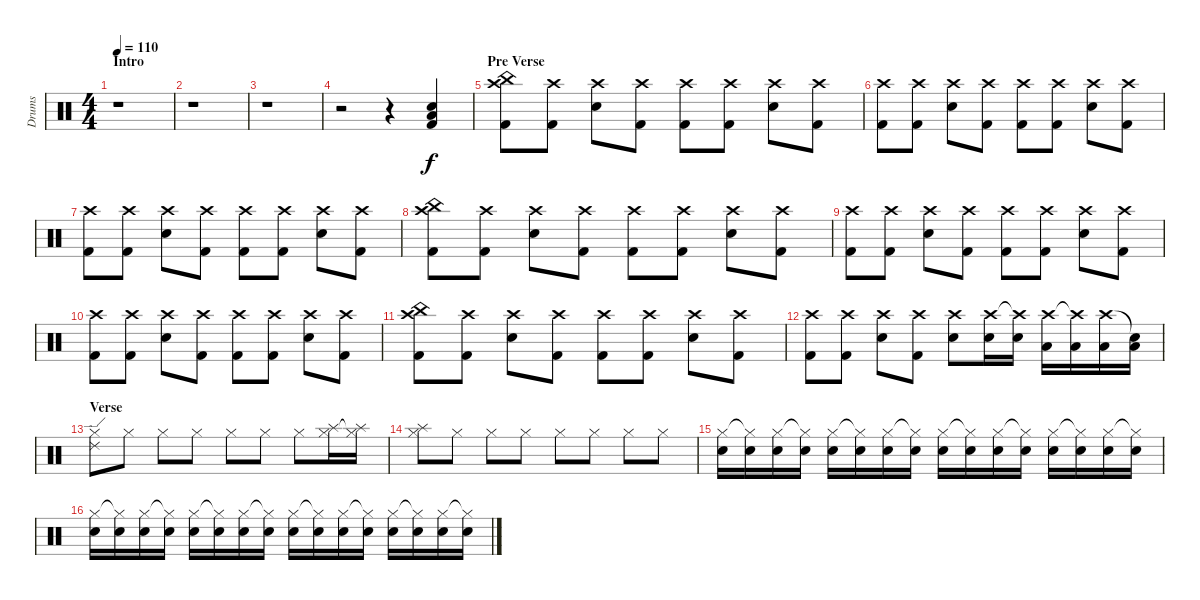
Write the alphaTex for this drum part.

\track ("Drums" "Drums") {instrument percussion}
\staff {score}
\articulation defaults
\ts (4 4)
\section ("" "Intro")
\tempo 110
\clef neutral
\ks c
r.1{dy f} |
r.1 |
r.1 |
r.2 r.4 ("Low Floor Tom (hit)" "Snare (hit) 2" "Kick (hit) 2").4 |
\section ("" "Pre Verse")
("Crash high (hit)" "China (hit)" "Kick (hit) 2").8 ("Crash high (hit)" "Kick (hit) 2").8 ("Crash high (hit)" "Snare (hit) 2").8 ("Crash high (hit)" "Kick (hit) 2").8 ("Crash high (hit)" "Kick (hit) 2").8 ("Crash high (hit)" "Kick (hit) 2").8 ("Crash high (hit)" "Snare (hit) 2").8 ("Crash high (hit)" "Kick (hit) 2").8 |
("Crash high (hit)" "Kick (hit) 2").8 ("Crash high (hit)" "Kick (hit) 2").8 ("Crash high (hit)" "Snare (hit) 2").8 ("Crash high (hit)" "Kick (hit) 2").8 ("Crash high (hit)" "Kick (hit) 2").8 ("Crash high (hit)" "Kick (hit) 2").8 ("Crash high (hit)" "Snare (hit) 2").8 ("Crash high (hit)" "Kick (hit) 2").8 |
("Crash high (hit)" "Kick (hit) 2").8 ("Crash high (hit)" "Kick (hit) 2").8 ("Crash high (hit)" "Snare (hit) 2").8 ("Crash high (hit)" "Kick (hit) 2").8 ("Crash high (hit)" "Kick (hit) 2").8 ("Crash high (hit)" "Kick (hit) 2").8 ("Crash high (hit)" "Snare (hit) 2").8 ("Crash high (hit)" "Kick (hit) 2").8 |
("Crash high (hit)" "China (hit)" "Kick (hit) 2").8 ("Crash high (hit)" "Kick (hit) 2").8 ("Crash high (hit)" "Snare (hit) 2").8 ("Crash high (hit)" "Kick (hit) 2").8 ("Crash high (hit)" "Kick (hit) 2").8 ("Crash high (hit)" "Kick (hit) 2").8 ("Crash high (hit)" "Snare (hit) 2").8 ("Crash high (hit)" "Kick (hit) 2").8 |
("Crash high (hit)" "Kick (hit) 2").8 ("Crash high (hit)" "Kick (hit) 2").8 ("Crash high (hit)" "Snare (hit) 2").8 ("Crash high (hit)" "Kick (hit) 2").8 ("Crash high (hit)" "Kick (hit) 2").8 ("Crash high (hit)" "Kick (hit) 2").8 ("Crash high (hit)" "Snare (hit) 2").8 ("Crash high (hit)" "Kick (hit) 2").8 |
("Crash high (hit)" "Kick (hit) 2").8 ("Crash high (hit)" "Kick (hit) 2").8 ("Crash high (hit)" "Snare (hit) 2").8 ("Crash high (hit)" "Kick (hit) 2").8 ("Crash high (hit)" "Kick (hit) 2").8 ("Crash high (hit)" "Kick (hit) 2").8 ("Crash high (hit)" "Snare (hit) 2").8 ("Crash high (hit)" "Kick (hit) 2").8 |
("Crash high (hit)" "China (hit)" "Kick (hit) 2").8 ("Crash high (hit)" "Kick (hit) 2").8 ("Crash high (hit)" "Snare (hit) 2").8 ("Crash high (hit)" "Kick (hit) 2").8 ("Crash high (hit)" "Kick (hit) 2").8 ("Crash high (hit)" "Kick (hit) 2").8 ("Crash high (hit)" "Snare (hit) 2").8 ("Crash high (hit)" "Kick (hit) 2").8 |
("Crash high (hit)" "Kick (hit) 2").8 ("Crash high (hit)" "Kick (hit) 2").8 ("Crash high (hit)" "Snare (hit) 2").8 ("Crash high (hit)" "Kick (hit) 2").8 ("Crash high (hit)" "Snare (hit) 2").8 ("Crash high (hit)" "Snare (hit) 2").16 ("Crash high (hit)"{t} "Snare (hit) 2").16 ("Crash high (hit)" "Low Tom (hit)").16 ("Crash high (hit)"{t} "Low Tom (hit)").16 ("Crash high (hit)" "Low Floor Tom (hit)").16 ("Snare (hit)"{t} "Low Floor Tom (hit)").16 |
\section ("" "Verse")
("Ride (edge) 2" "Hi-Hat (closed)").8 "Hi-Hat (closed)".8 "Hi-Hat (closed)".8 "Hi-Hat (closed)".8 "Hi-Hat (closed)".8 "Hi-Hat (closed)".8 "Hi-Hat (closed)".8 ("Splash (hit)" "Hi-Hat (closed)").16 ("Splash (hit)" "Hi-Hat (closed)"{t}).16 |
("Splash (hit)" "Hi-Hat (closed)").8 "Hi-Hat (closed)".8 "Hi-Hat (closed)".8 "Hi-Hat (closed)".8 "Hi-Hat (closed)".8 "Hi-Hat (closed)".8 "Hi-Hat (closed)".8 "Hi-Hat (closed)".8 |
("Snare (hit) 2" "Hi-Hat (closed)").16 ("Snare (hit) 2" "Hi-Hat (closed)"{t}).16 ("Snare (hit) 2" "Hi-Hat (closed)").16 ("Snare (hit) 2" "Hi-Hat (closed)"{t}).16 ("Snare (hit) 2" "Hi-Hat (closed)").16 ("Snare (hit) 2" "Hi-Hat (closed)"{t}).16 ("Snare (hit) 2" "Hi-Hat (closed)").16 ("Snare (hit) 2" "Hi-Hat (closed)"{t}).16 ("Snare (hit) 2" "Hi-Hat (closed)").16 ("Snare (hit) 2" "Hi-Hat (closed)"{t}).16 ("Snare (hit) 2" "Hi-Hat (closed)").16 ("Snare (hit) 2" "Hi-Hat (closed)"{t}).16 ("Snare (hit) 2" "Hi-Hat (closed)").16 ("Snare (hit) 2" "Hi-Hat (closed)"{t}).16 ("Snare (hit) 2" "Hi-Hat (closed)").16 ("Snare (hit) 2" "Hi-Hat (closed)"{t}).16 |
("Snare (hit) 2" "Hi-Hat (closed)").16 ("Snare (hit) 2" "Hi-Hat (closed)"{t}).16 ("Snare (hit) 2" "Hi-Hat (closed)").16 ("Snare (hit) 2" "Hi-Hat (closed)"{t}).16 ("Snare (hit) 2" "Hi-Hat (closed)").16 ("Snare (hit) 2" "Hi-Hat (closed)"{t}).16 ("Snare (hit) 2" "Hi-Hat (closed)").16 ("Snare (hit) 2" "Hi-Hat (closed)"{t}).16 ("Snare (hit) 2" "Hi-Hat (closed)").16 ("Snare (hit) 2" "Hi-Hat (closed)"{t}).16 ("Snare (hit) 2" "Hi-Hat (closed)").16 ("Snare (hit) 2" "Hi-Hat (closed)"{t}).16 ("Snare (hit) 2" "Hi-Hat (closed)").16 ("Snare (hit) 2" "Hi-Hat (closed)"{t}).16 ("Snare (hit) 2" "Hi-Hat (closed)").16 ("Snare (hit) 2" "Hi-Hat (closed)"{t}).16
